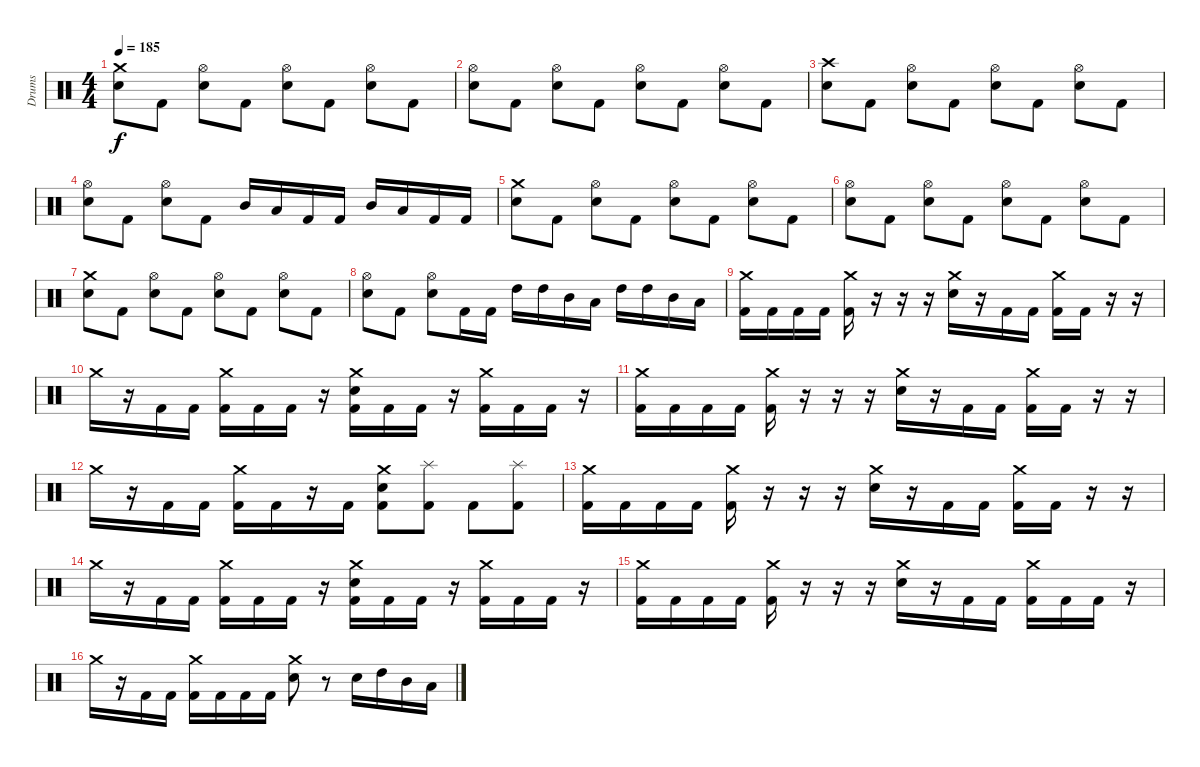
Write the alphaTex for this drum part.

\track ("Drums" "Drums") {instrument percussion}
\staff {score}
\articulation defaults
\ts (4 4)
\tempo 185
\clef neutral
\ks c
("Crash medium (hit)" "Snare (hit) 2").8{dy f} "Kick (hit) 2".8 ("Snare (hit) 2" "Hi-Hat (open)").8 "Kick (hit) 2".8 ("Snare (hit) 2" "Hi-Hat (open)").8 "Kick (hit) 2".8 ("Snare (hit) 2" "Hi-Hat (open)").8 "Kick (hit) 2".8 |
("Snare (hit) 2" "Hi-Hat (open)").8 "Kick (hit) 2".8 ("Snare (hit) 2" "Hi-Hat (open)").8 "Kick (hit) 2".8 ("Snare (hit) 2" "Hi-Hat (open)").8 "Kick (hit) 2".8 ("Snare (hit) 2" "Hi-Hat (open)").8 "Kick (hit) 2".8 |
("Crash high (hit)" "Snare (hit) 2").8 "Kick (hit) 2".8 ("Snare (hit) 2" "Hi-Hat (open)").8 "Kick (hit) 2".8 ("Snare (hit) 2" "Hi-Hat (open)").8 "Kick (hit) 2".8 ("Snare (hit) 2" "Hi-Hat (open)").8 "Kick (hit) 2".8 |
("Snare (hit) 2" "Hi-Hat (open)").8 "Kick (hit) 2".8 ("Snare (hit) 2" "Hi-Hat (open)").8 "Kick (hit) 2".8 "Mid Tom (hit)".16 "Low Tom (hit)".16 "Kick (hit) 2".16 "Kick (hit) 2".16 "Mid Tom (hit)".16 "Low Tom (hit)".16 "Kick (hit) 2".16 "Kick (hit) 2".16 |
("Crash medium (hit)" "Snare (hit) 2").8 "Kick (hit) 2".8 ("Snare (hit) 2" "Hi-Hat (open)").8 "Kick (hit) 2".8 ("Snare (hit) 2" "Hi-Hat (open)").8 "Kick (hit) 2".8 ("Snare (hit) 2" "Hi-Hat (open)").8 "Kick (hit) 2".8 |
("Snare (hit) 2" "Hi-Hat (open)").8 "Kick (hit) 2".8 ("Snare (hit) 2" "Hi-Hat (open)").8 "Kick (hit) 2".8 ("Snare (hit) 2" "Hi-Hat (open)").8 "Kick (hit) 2".8 ("Snare (hit) 2" "Hi-Hat (open)").8 "Kick (hit) 2".8 |
("Crash medium (hit)" "Snare (hit) 2").8 "Kick (hit) 2".8 ("Snare (hit) 2" "Hi-Hat (open)").8 "Kick (hit) 2".8 ("Snare (hit) 2" "Hi-Hat (open)").8 "Kick (hit) 2".8 ("Snare (hit) 2" "Hi-Hat (open)").8 "Kick (hit) 2".8 |
("Snare (hit) 2" "Hi-Hat (open)").8 "Kick (hit) 2".8 ("Snare (hit) 2" "Hi-Hat (open)").8 "Kick (hit) 2".16 "Kick (hit) 2".16 "High Tom (hit)".16 "High Tom (hit)".16 "Mid Tom (hit)".16 "Low Tom (hit)".16 "High Tom (hit)".16 "High Tom (hit)".16 "Mid Tom (hit)".16 "Low Tom (hit)".16 |
("Crash medium (hit)" "Kick (hit) 2").16 "Kick (hit) 2".16 "Kick (hit) 2".16 "Kick (hit) 2".16 ("Crash medium (hit)" "Kick (hit) 2").16 r.16 r.16 r.16 ("Crash medium (hit)" "Snare (hit) 2").16 r.16 "Kick (hit) 2".16 "Kick (hit) 2".16 ("Crash medium (hit)" "Kick (hit) 2").16 "Kick (hit) 2".16 r.16 r.16 |
"Crash medium (hit)".16 r.16 "Kick (hit) 2".16 "Kick (hit) 2".16 ("Crash medium (hit)" "Kick (hit) 2").16 "Kick (hit) 2".16 "Kick (hit) 2".16 r.16 ("Crash medium (hit)" "Snare (hit) 2" "Kick (hit) 2").16 "Kick (hit) 2".16 "Kick (hit) 2".16 r.16 ("Crash medium (hit)" "Kick (hit) 2").16 "Kick (hit) 2".16 "Kick (hit) 2".16 r.16 |
("Crash medium (hit)" "Kick (hit) 2").16 "Kick (hit) 2".16 "Kick (hit) 2".16 "Kick (hit) 2".16 ("Crash medium (hit)" "Kick (hit) 2").16 r.16 r.16 r.16 ("Crash medium (hit)" "Snare (hit) 2").16 r.16 "Kick (hit) 2".16 "Kick (hit) 2".16 ("Crash medium (hit)" "Kick (hit) 2").16 "Kick (hit) 2".16 r.16 r.16 |
"Crash medium (hit)".16 r.16 "Kick (hit) 2".16 "Kick (hit) 2".16 ("Crash medium (hit)" "Kick (hit) 2").16 "Kick (hit) 2".16 r.16 "Kick (hit) 2".16 ("Crash medium (hit)" "Snare (hit) 2" "Kick (hit) 2").8 ("Splash (hit)" "Kick (hit) 2").8 "Kick (hit) 2".8 ("Splash (hit)" "Kick (hit) 2").8 |
("Crash medium (hit)" "Kick (hit) 2").16 "Kick (hit) 2".16 "Kick (hit) 2".16 "Kick (hit) 2".16 ("Crash medium (hit)" "Kick (hit) 2").16 r.16 r.16 r.16 ("Crash medium (hit)" "Snare (hit) 2").16 r.16 "Kick (hit) 2".16 "Kick (hit) 2".16 ("Crash medium (hit)" "Kick (hit) 2").16 "Kick (hit) 2".16 r.16 r.16 |
"Crash medium (hit)".16 r.16 "Kick (hit) 2".16 "Kick (hit) 2".16 ("Crash medium (hit)" "Kick (hit) 2").16 "Kick (hit) 2".16 "Kick (hit) 2".16 r.16 ("Crash medium (hit)" "Snare (hit) 2" "Kick (hit) 2").16 "Kick (hit) 2".16 "Kick (hit) 2".16 r.16 ("Crash medium (hit)" "Kick (hit) 2").16 "Kick (hit) 2".16 "Kick (hit) 2".16 r.16 |
("Crash medium (hit)" "Kick (hit) 2").16 "Kick (hit) 2".16 "Kick (hit) 2".16 "Kick (hit) 2".16 ("Crash medium (hit)" "Kick (hit) 2").16 r.16 r.16 r.16 ("Crash medium (hit)" "Snare (hit) 2").16 r.16 "Kick (hit) 2".16 "Kick (hit) 2".16 ("Crash medium (hit)" "Kick (hit) 2").16 "Kick (hit) 2".16 "Kick (hit) 2".16 r.16 |
"Crash medium (hit)".16 r.16 "Kick (hit) 2".16 "Kick (hit) 2".16 ("Crash medium (hit)" "Kick (hit) 2").16 "Kick (hit) 2".16 "Kick (hit) 2".16 "Kick (hit) 2".16 ("Crash medium (hit)" "Snare (hit) 2").8 r.8 "Snare (hit) 2".16 "High Tom (hit)".16 "Mid Tom (hit)".16 "Low Tom (hit)".16
